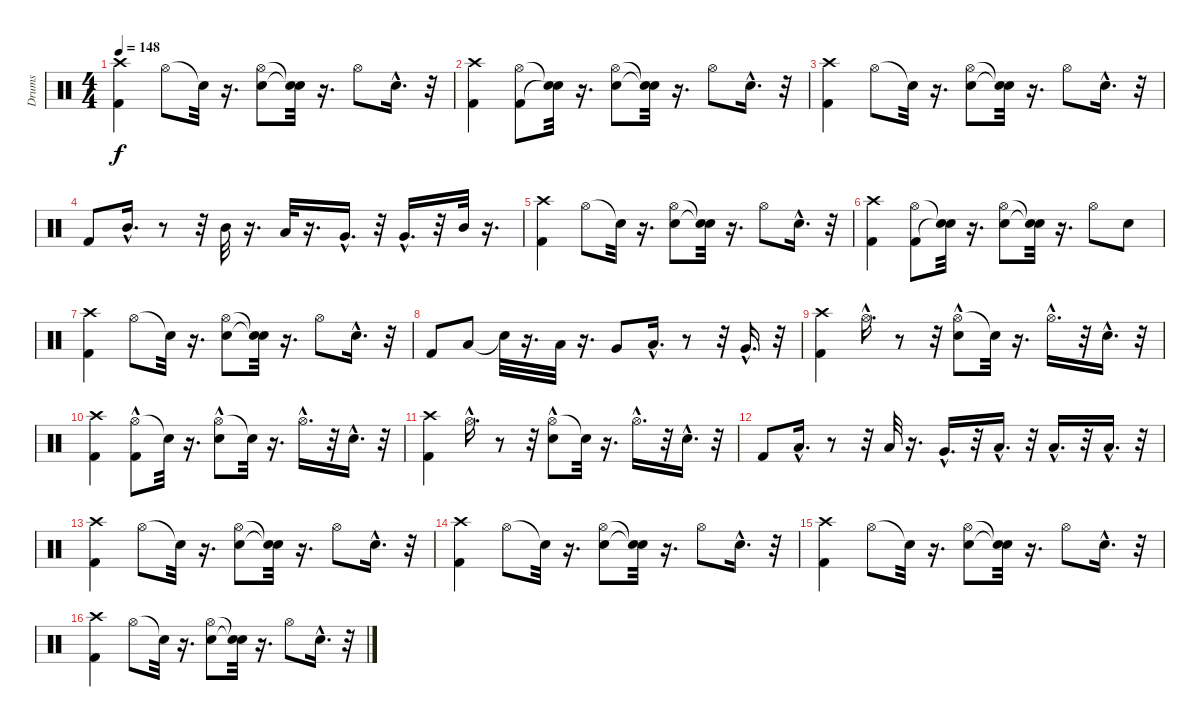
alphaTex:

\track ("Drums" "Drums") {instrument percussion}
\staff {score}
\articulation defaults
\ts (4 4)
\tempo 148
\clef neutral
\ks c
("Crash high (hit)" "Kick (hit) 2").4{dy f} "Hi-Hat (open)".8 "Snare (hit)"{t}.32 r.16{d} ("Hi-Hat (open)" "Snare (hit) 2").8 ("Snare (hit)"{t} "Snare (hit)"{t}).32 r.16{d} "Hi-Hat (open)".8 "Snare (hit) 2"{hac}.16{d} r.32 |
("Crash high (hit)" "Kick (hit) 2").4 ("Hi-Hat (open)" "Kick (hit) 2").8 ("Snare (hit)"{t} "Snare (hit)"{t}).32 r.16{d} ("Hi-Hat (open)" "Snare (hit) 2").8 ("Snare (hit)"{t} "Snare (hit)"{t}).32 r.16{d} "Hi-Hat (open)".8 "Snare (hit) 2"{hac}.16{d} r.32 |
("Crash high (hit)" "Kick (hit) 2").4 "Hi-Hat (open)".8 "Snare (hit)"{t}.32 r.16{d} ("Hi-Hat (open)" "Snare (hit) 2").8 ("Snare (hit)"{t} "Snare (hit)"{t}).32 r.16{d} "Hi-Hat (open)".8 "Snare (hit) 2"{hac}.16{d} r.32 |
"Kick (hit) 2".8 "Mid Tom (hit)"{hac}.16{d} r.8 r.32 "Mid Tom (hit)".32 r.16{d} "Low Tom (hit)".32 r.16{d} "Very Low Tom (hit)"{hac}.16{d} r.32 "Very Low Tom (hit)"{hac}.16{d} r.32 "Mid Tom (hit)".32 r.16{d} |
("Crash high (hit)" "Kick (hit) 2").4 "Hi-Hat (open)".8 "Snare (hit)"{t}.32 r.16{d} ("Hi-Hat (open)" "Snare (hit) 2").8 ("Snare (hit)"{t} "Snare (hit)"{t}).32 r.16{d} "Hi-Hat (open)".8 "Snare (hit) 2"{hac}.16{d} r.32 |
("Kick (hit) 2" "Crash high (hit)").4 ("Hi-Hat (open)" "Kick (hit) 2").8 ("Snare (hit)"{t} "Snare (hit)"{t}).32 r.16{d} ("Hi-Hat (open)" "Snare (hit) 2").8 ("Snare (hit)"{t} "Snare (hit)"{t}).32 r.16{d} "Hi-Hat (open)".8 "Snare (hit) 2".8 |
("Kick (hit) 2" "Crash high (hit)").4 "Hi-Hat (open)".8 "Snare (hit)"{t}.32 r.16{d} ("Hi-Hat (open)" "Snare (hit) 2").8 ("Snare (hit)"{t} "Snare (hit)"{t}).32 r.16{d} "Hi-Hat (open)".8 "Snare (hit) 2"{hac}.16{d} r.32 |
"Kick (hit) 2".8 "Low Tom (hit)".8 "Snare (hit)"{t}.32 r.16{d} "Low Tom (hit)".32 r.16{d} "Very Low Tom (hit)".8 "Low Tom (hit)"{hac}.16{d} r.8 r.32 "Very Low Tom (hit)"{hac}.16{d} r.32 |
("Crash high (hit)" "Kick (hit) 2").4 "Hi-Hat (open)"{hac}.16{d} r.8 r.32 ("Hi-Hat (open)"{hac} "Snare (hit) 2").8 "Snare (hit)"{t}.32 r.16{d} "Hi-Hat (open)"{hac}.16{d} r.32 "Snare (hit) 2"{hac}.16{d} r.32 |
("Kick (hit) 2" "Crash high (hit)").4 ("Hi-Hat (open)"{hac} "Kick (hit) 2").8 "Snare (hit)"{t}.32 r.16{d} ("Hi-Hat (open)"{hac} "Snare (hit) 2").8 "Snare (hit)"{t}.32 r.16{d} "Hi-Hat (open)"{hac}.16{d} r.32 "Snare (hit) 2"{hac}.16{d} r.32 |
("Crash high (hit)" "Kick (hit) 2").4 "Hi-Hat (open)"{hac}.16{d} r.8 r.32 ("Hi-Hat (open)"{hac} "Snare (hit) 2").8 "Snare (hit)"{t}.32 r.16{d} "Hi-Hat (open)"{hac}.16{d} r.32 "Snare (hit) 2"{hac}.16{d} r.32 |
"Kick (hit) 2".8 "Low Tom (hit)"{hac}.16{d} r.8 r.32 "Low Tom (hit)".32 r.16{d} "Very Low Tom (hit)"{hac}.16{d} r.32 "Low Floor Tom (hit)"{hac}.16{d} r.32 "Low Floor Tom (hit)"{hac}.16{d} r.32 "Low Tom (hit)"{hac}.16{d} r.32 |
("Crash high (hit)" "Kick (hit) 2").4 "Hi-Hat (open)".8 "Snare (hit)"{t}.32 r.16{d} ("Hi-Hat (open)" "Snare (hit) 2").8 ("Snare (hit)"{t} "Snare (hit)"{t}).32 r.16{d} "Hi-Hat (open)".8 "Snare (hit) 2"{hac}.16{d} r.32 |
("Crash high (hit)" "Kick (hit) 2").4 "Hi-Hat (open)".8 "Snare (hit)"{t}.32 r.16{d} ("Hi-Hat (open)" "Snare (hit) 2").8 ("Snare (hit)"{t} "Snare (hit)"{t}).32 r.16{d} "Hi-Hat (open)".8 "Snare (hit) 2"{hac}.16{d} r.32 |
("Crash high (hit)" "Kick (hit) 2").4 "Hi-Hat (open)".8 "Snare (hit)"{t}.32 r.16{d} ("Hi-Hat (open)" "Snare (hit) 2").8 ("Snare (hit)"{t} "Snare (hit)"{t}).32 r.16{d} "Hi-Hat (open)".8 "Snare (hit) 2"{hac}.16{d} r.32 |
("Crash high (hit)" "Kick (hit) 2").4 "Hi-Hat (open)".8 "Snare (hit)"{t}.32 r.16{d} ("Hi-Hat (open)" "Snare (hit) 2").8 ("Snare (hit)"{t} "Snare (hit)"{t}).32 r.16{d} "Hi-Hat (open)".8 "Snare (hit) 2"{hac}.16{d} r.32
